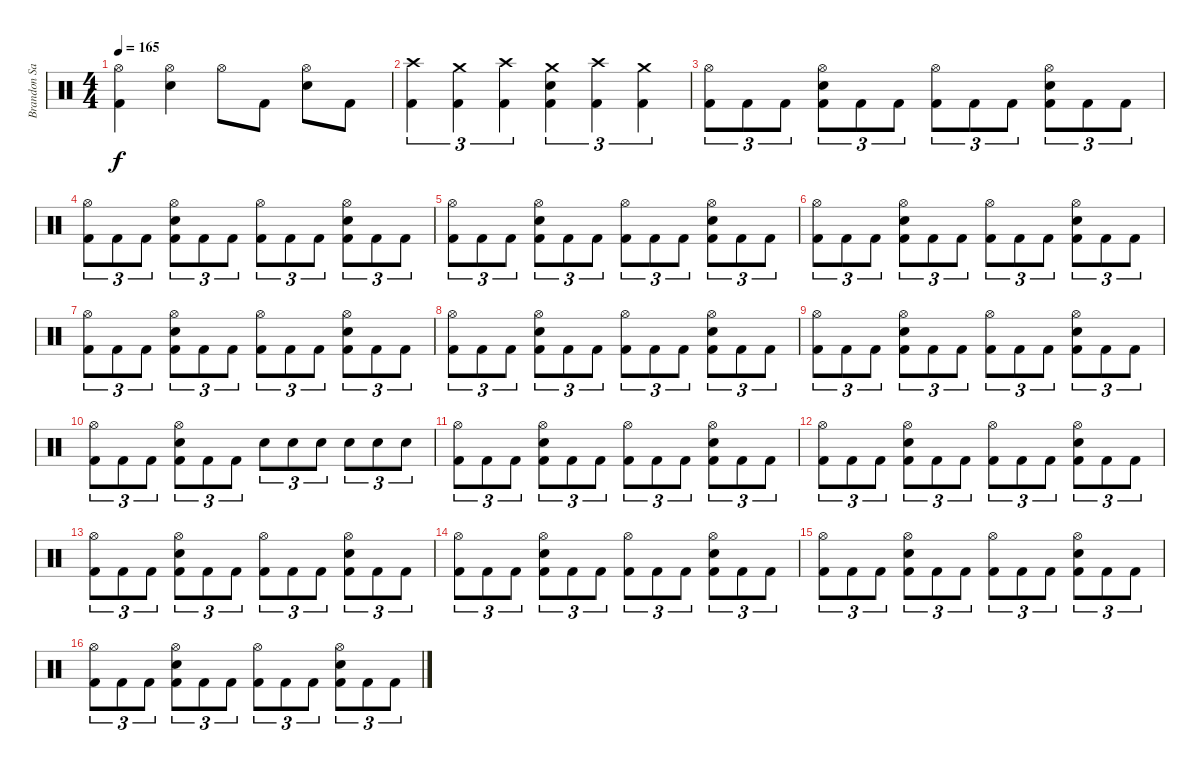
\track ("Brandon Saller" "Brandon Sa") {instrument percussion}
\staff {score}
\articulation defaults
\ts (4 4)
\tempo 165
\clef neutral
\ks c
("Hi-Hat (open)" "Kick (hit) 2").4{dy f} ("Hi-Hat (open)" "Electric Snare (hit)").4 "Hi-Hat (open)".8 "Kick (hit) 2".8 ("Hi-Hat (open)" "Electric Snare (hit)").8 "Kick (hit) 2".8 |
("Crash high (hit)" "Kick (hit) 2").4{tu (3 2)} ("Crash medium (hit)" "Kick (hit) 2").4{tu (3 2)} ("Crash high (hit)" "Kick (hit) 2").4{tu (3 2)} ("Crash medium (hit)" "Electric Snare (hit)" "Kick (hit) 2").4{tu (3 2)} ("Crash high (hit)" "Kick (hit) 2").4{tu (3 2)} ("Crash medium (hit)" "Kick (hit) 2").4{tu (3 2)} |
("Hi-Hat (open)" "Kick (hit) 2").8{tu (3 2)} "Kick (hit) 2".8{tu (3 2)} "Kick (hit) 2".8{tu (3 2)} ("Hi-Hat (open)" "Electric Snare (hit)" "Kick (hit) 2").8{tu (3 2)} "Kick (hit) 2".8{tu (3 2)} "Kick (hit) 2".8{tu (3 2)} ("Hi-Hat (open)" "Kick (hit) 2").8{tu (3 2)} "Kick (hit) 2".8{tu (3 2)} "Kick (hit) 2".8{tu (3 2)} ("Hi-Hat (open)" "Electric Snare (hit)" "Kick (hit) 2").8{tu (3 2)} "Kick (hit) 2".8{tu (3 2)} "Kick (hit) 2".8{tu (3 2)} |
("Hi-Hat (open)" "Kick (hit) 2").8{tu (3 2)} "Kick (hit) 2".8{tu (3 2)} "Kick (hit) 2".8{tu (3 2)} ("Hi-Hat (open)" "Electric Snare (hit)" "Kick (hit) 2").8{tu (3 2)} "Kick (hit) 2".8{tu (3 2)} "Kick (hit) 2".8{tu (3 2)} ("Hi-Hat (open)" "Kick (hit) 2").8{tu (3 2)} "Kick (hit) 2".8{tu (3 2)} "Kick (hit) 2".8{tu (3 2)} ("Hi-Hat (open)" "Electric Snare (hit)" "Kick (hit) 2").8{tu (3 2)} "Kick (hit) 2".8{tu (3 2)} "Kick (hit) 2".8{tu (3 2)} |
("Hi-Hat (open)" "Kick (hit) 2").8{tu (3 2)} "Kick (hit) 2".8{tu (3 2)} "Kick (hit) 2".8{tu (3 2)} ("Hi-Hat (open)" "Electric Snare (hit)" "Kick (hit) 2").8{tu (3 2)} "Kick (hit) 2".8{tu (3 2)} "Kick (hit) 2".8{tu (3 2)} ("Hi-Hat (open)" "Kick (hit) 2").8{tu (3 2)} "Kick (hit) 2".8{tu (3 2)} "Kick (hit) 2".8{tu (3 2)} ("Hi-Hat (open)" "Electric Snare (hit)" "Kick (hit) 2").8{tu (3 2)} "Kick (hit) 2".8{tu (3 2)} "Kick (hit) 2".8{tu (3 2)} |
("Hi-Hat (open)" "Kick (hit) 2").8{tu (3 2)} "Kick (hit) 2".8{tu (3 2)} "Kick (hit) 2".8{tu (3 2)} ("Hi-Hat (open)" "Electric Snare (hit)" "Kick (hit) 2").8{tu (3 2)} "Kick (hit) 2".8{tu (3 2)} "Kick (hit) 2".8{tu (3 2)} ("Hi-Hat (open)" "Kick (hit) 2").8{tu (3 2)} "Kick (hit) 2".8{tu (3 2)} "Kick (hit) 2".8{tu (3 2)} ("Hi-Hat (open)" "Electric Snare (hit)" "Kick (hit) 2").8{tu (3 2)} "Kick (hit) 2".8{tu (3 2)} "Kick (hit) 2".8{tu (3 2)} |
("Hi-Hat (open)" "Kick (hit) 2").8{tu (3 2)} "Kick (hit) 2".8{tu (3 2)} "Kick (hit) 2".8{tu (3 2)} ("Hi-Hat (open)" "Electric Snare (hit)" "Kick (hit) 2").8{tu (3 2)} "Kick (hit) 2".8{tu (3 2)} "Kick (hit) 2".8{tu (3 2)} ("Hi-Hat (open)" "Kick (hit) 2").8{tu (3 2)} "Kick (hit) 2".8{tu (3 2)} "Kick (hit) 2".8{tu (3 2)} ("Hi-Hat (open)" "Electric Snare (hit)" "Kick (hit) 2").8{tu (3 2)} "Kick (hit) 2".8{tu (3 2)} "Kick (hit) 2".8{tu (3 2)} |
("Hi-Hat (open)" "Kick (hit) 2").8{tu (3 2)} "Kick (hit) 2".8{tu (3 2)} "Kick (hit) 2".8{tu (3 2)} ("Hi-Hat (open)" "Electric Snare (hit)" "Kick (hit) 2").8{tu (3 2)} "Kick (hit) 2".8{tu (3 2)} "Kick (hit) 2".8{tu (3 2)} ("Hi-Hat (open)" "Kick (hit) 2").8{tu (3 2)} "Kick (hit) 2".8{tu (3 2)} "Kick (hit) 2".8{tu (3 2)} ("Hi-Hat (open)" "Electric Snare (hit)" "Kick (hit) 2").8{tu (3 2)} "Kick (hit) 2".8{tu (3 2)} "Kick (hit) 2".8{tu (3 2)} |
("Hi-Hat (open)" "Kick (hit) 2").8{tu (3 2)} "Kick (hit) 2".8{tu (3 2)} "Kick (hit) 2".8{tu (3 2)} ("Hi-Hat (open)" "Electric Snare (hit)" "Kick (hit) 2").8{tu (3 2)} "Kick (hit) 2".8{tu (3 2)} "Kick (hit) 2".8{tu (3 2)} ("Hi-Hat (open)" "Kick (hit) 2").8{tu (3 2)} "Kick (hit) 2".8{tu (3 2)} "Kick (hit) 2".8{tu (3 2)} ("Hi-Hat (open)" "Electric Snare (hit)" "Kick (hit) 2").8{tu (3 2)} "Kick (hit) 2".8{tu (3 2)} "Kick (hit) 2".8{tu (3 2)} |
("Hi-Hat (open)" "Kick (hit) 2").8{tu (3 2)} "Kick (hit) 2".8{tu (3 2)} "Kick (hit) 2".8{tu (3 2)} ("Hi-Hat (open)" "Electric Snare (hit)" "Kick (hit) 2").8{tu (3 2)} "Kick (hit) 2".8{tu (3 2)} "Kick (hit) 2".8{tu (3 2)} "Electric Snare (hit)".8{tu (3 2)} "Electric Snare (hit)".8{tu (3 2)} "Electric Snare (hit)".8{tu (3 2)} "Electric Snare (hit)".8{tu (3 2)} "Electric Snare (hit)".8{tu (3 2)} "Electric Snare (hit)".8{tu (3 2)} |
("Hi-Hat (open)" "Kick (hit) 2").8{tu (3 2)} "Kick (hit) 2".8{tu (3 2)} "Kick (hit) 2".8{tu (3 2)} ("Hi-Hat (open)" "Electric Snare (hit)" "Kick (hit) 2").8{tu (3 2)} "Kick (hit) 2".8{tu (3 2)} "Kick (hit) 2".8{tu (3 2)} ("Hi-Hat (open)" "Kick (hit) 2").8{tu (3 2)} "Kick (hit) 2".8{tu (3 2)} "Kick (hit) 2".8{tu (3 2)} ("Hi-Hat (open)" "Electric Snare (hit)" "Kick (hit) 2").8{tu (3 2)} "Kick (hit) 2".8{tu (3 2)} "Kick (hit) 2".8{tu (3 2)} |
("Hi-Hat (open)" "Kick (hit) 2").8{tu (3 2)} "Kick (hit) 2".8{tu (3 2)} "Kick (hit) 2".8{tu (3 2)} ("Hi-Hat (open)" "Electric Snare (hit)" "Kick (hit) 2").8{tu (3 2)} "Kick (hit) 2".8{tu (3 2)} "Kick (hit) 2".8{tu (3 2)} ("Hi-Hat (open)" "Kick (hit) 2").8{tu (3 2)} "Kick (hit) 2".8{tu (3 2)} "Kick (hit) 2".8{tu (3 2)} ("Hi-Hat (open)" "Electric Snare (hit)" "Kick (hit) 2").8{tu (3 2)} "Kick (hit) 2".8{tu (3 2)} "Kick (hit) 2".8{tu (3 2)} |
("Hi-Hat (open)" "Kick (hit) 2").8{tu (3 2)} "Kick (hit) 2".8{tu (3 2)} "Kick (hit) 2".8{tu (3 2)} ("Hi-Hat (open)" "Electric Snare (hit)" "Kick (hit) 2").8{tu (3 2)} "Kick (hit) 2".8{tu (3 2)} "Kick (hit) 2".8{tu (3 2)} ("Hi-Hat (open)" "Kick (hit) 2").8{tu (3 2)} "Kick (hit) 2".8{tu (3 2)} "Kick (hit) 2".8{tu (3 2)} ("Hi-Hat (open)" "Electric Snare (hit)" "Kick (hit) 2").8{tu (3 2)} "Kick (hit) 2".8{tu (3 2)} "Kick (hit) 2".8{tu (3 2)} |
("Hi-Hat (open)" "Kick (hit) 2").8{tu (3 2)} "Kick (hit) 2".8{tu (3 2)} "Kick (hit) 2".8{tu (3 2)} ("Hi-Hat (open)" "Electric Snare (hit)" "Kick (hit) 2").8{tu (3 2)} "Kick (hit) 2".8{tu (3 2)} "Kick (hit) 2".8{tu (3 2)} ("Hi-Hat (open)" "Kick (hit) 2").8{tu (3 2)} "Kick (hit) 2".8{tu (3 2)} "Kick (hit) 2".8{tu (3 2)} ("Hi-Hat (open)" "Electric Snare (hit)" "Kick (hit) 2").8{tu (3 2)} "Kick (hit) 2".8{tu (3 2)} "Kick (hit) 2".8{tu (3 2)} |
("Hi-Hat (open)" "Kick (hit) 2").8{tu (3 2)} "Kick (hit) 2".8{tu (3 2)} "Kick (hit) 2".8{tu (3 2)} ("Hi-Hat (open)" "Electric Snare (hit)" "Kick (hit) 2").8{tu (3 2)} "Kick (hit) 2".8{tu (3 2)} "Kick (hit) 2".8{tu (3 2)} ("Hi-Hat (open)" "Kick (hit) 2").8{tu (3 2)} "Kick (hit) 2".8{tu (3 2)} "Kick (hit) 2".8{tu (3 2)} ("Hi-Hat (open)" "Electric Snare (hit)" "Kick (hit) 2").8{tu (3 2)} "Kick (hit) 2".8{tu (3 2)} "Kick (hit) 2".8{tu (3 2)} |
("Hi-Hat (open)" "Kick (hit) 2").8{tu (3 2)} "Kick (hit) 2".8{tu (3 2)} "Kick (hit) 2".8{tu (3 2)} ("Hi-Hat (open)" "Electric Snare (hit)" "Kick (hit) 2").8{tu (3 2)} "Kick (hit) 2".8{tu (3 2)} "Kick (hit) 2".8{tu (3 2)} ("Hi-Hat (open)" "Kick (hit) 2").8{tu (3 2)} "Kick (hit) 2".8{tu (3 2)} "Kick (hit) 2".8{tu (3 2)} ("Hi-Hat (open)" "Electric Snare (hit)" "Kick (hit) 2").8{tu (3 2)} "Kick (hit) 2".8{tu (3 2)} "Kick (hit) 2".8{tu (3 2)}
